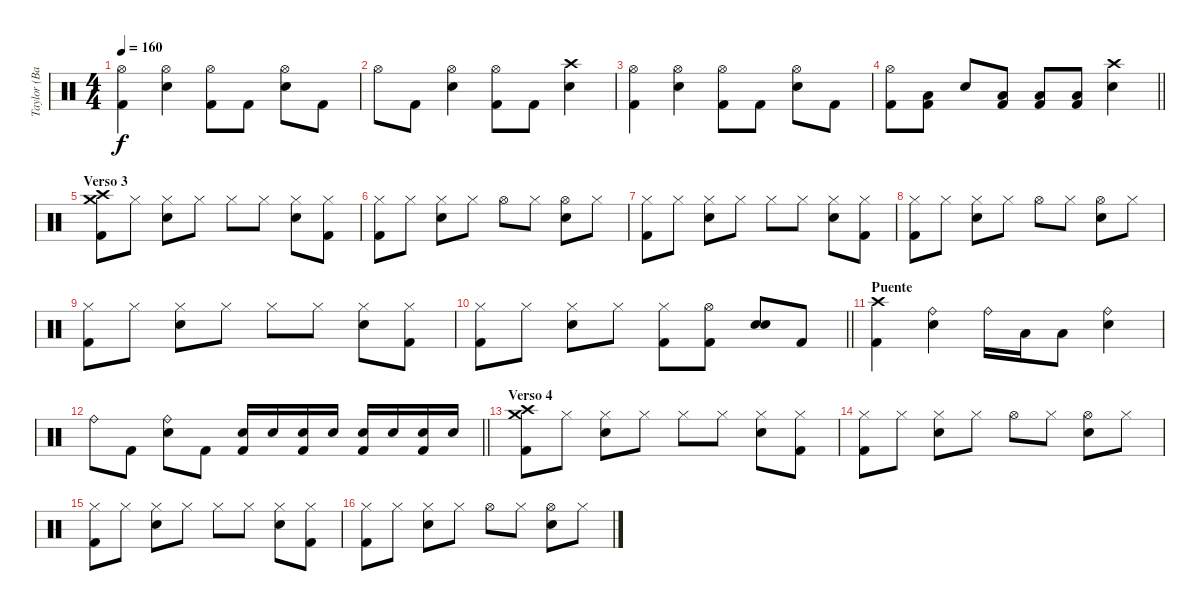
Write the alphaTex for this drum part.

\track ("Taylor (Batería)" "Taylor (Ba") {instrument percussion}
\staff {score}
\articulation defaults
\ts (4 4)
\tempo 160
\clef neutral
\ks c
("Hi-Hat (open)" "Kick (hit) 2").4{dy f} ("Hi-Hat (open)" "Electric Snare (hit)").4 ("Hi-Hat (open)" "Kick (hit) 2").8 "Kick (hit) 2".8 ("Hi-Hat (open)" "Electric Snare (hit)").8 "Kick (hit) 2".8 |
"Hi-Hat (open)".8 "Kick (hit) 2".8 ("Hi-Hat (open)" "Electric Snare (hit)").4 ("Hi-Hat (open)" "Kick (hit) 2").8 "Kick (hit) 2".8 ("Crash high (hit)" "Electric Snare (hit)").4 |
("Hi-Hat (open)" "Kick (hit) 2").4 ("Hi-Hat (open)" "Electric Snare (hit)").4 ("Hi-Hat (open)" "Kick (hit) 2").8 "Kick (hit) 2".8 ("Hi-Hat (open)" "Electric Snare (hit)").8 "Kick (hit) 2".8 |
\barLineRight lightlight
("Hi-Hat (open)" "Kick (hit) 2").8 ("Low Tom (hit)" "Kick (hit) 2").8 "Electric Snare (hit)".8 ("Low Tom (hit)" "Kick (hit) 2").8 ("Low Tom (hit)" "Kick (hit) 2").8 ("Low Tom (hit)" "Kick (hit) 2").8 ("Crash high (hit)" "Electric Snare (hit)").4 |
\section ("" "Verso 3")
("Crash high (hit)" "Crash medium (hit)" "Kick (hit) 2").8 "Hi-Hat (closed)".8 ("Hi-Hat (closed)" "Electric Snare (hit)").8 "Hi-Hat (closed)".8 "Hi-Hat (closed)".8 "Hi-Hat (closed)".8 ("Hi-Hat (closed)" "Electric Snare (hit)").8 ("Hi-Hat (closed)" "Kick (hit) 2").8 |
("Hi-Hat (closed)" "Kick (hit) 2").8 "Hi-Hat (closed)".8 ("Hi-Hat (closed)" "Electric Snare (hit)").8 "Hi-Hat (closed)".8 "Hi-Hat (open)".8 "Hi-Hat (closed)".8 ("Hi-Hat (open)" "Electric Snare (hit)").8 "Hi-Hat (closed)".8 |
("Hi-Hat (closed)" "Kick (hit) 2").8 "Hi-Hat (closed)".8 ("Hi-Hat (closed)" "Electric Snare (hit)").8 "Hi-Hat (closed)".8 "Hi-Hat (closed)".8 "Hi-Hat (closed)".8 ("Hi-Hat (closed)" "Electric Snare (hit)").8 ("Hi-Hat (closed)" "Kick (hit) 2").8 |
("Hi-Hat (closed)" "Kick (hit) 2").8 "Hi-Hat (closed)".8 ("Hi-Hat (closed)" "Electric Snare (hit)").8 "Hi-Hat (closed)".8 "Hi-Hat (open)".8 "Hi-Hat (closed)".8 ("Hi-Hat (open)" "Electric Snare (hit)").8 "Hi-Hat (closed)".8 |
("Hi-Hat (closed)" "Kick (hit) 2").8 "Hi-Hat (closed)".8 ("Hi-Hat (closed)" "Electric Snare (hit)").8 "Hi-Hat (closed)".8 "Hi-Hat (closed)".8 "Hi-Hat (closed)".8 ("Hi-Hat (closed)" "Electric Snare (hit)").8 ("Hi-Hat (closed)" "Kick (hit) 2").8 |
\barLineRight lightlight
("Hi-Hat (closed)" "Kick (hit) 2").8 "Hi-Hat (closed)".8 ("Hi-Hat (closed)" "Electric Snare (hit)").8 "Hi-Hat (closed)".8 ("Hi-Hat (closed)" "Kick (hit) 2").8 ("Hi-Hat (open)" "Kick (hit) 2").8 ("Electric Snare (hit)" "Electric Snare (hit)").8 "Kick (hit) 2".8 |
\section ("" "Puente")
("Crash high (hit)" "Kick (hit) 2").4 ("Ride (bell)" "Electric Snare (hit)").4 "Ride (bell)".16 "Low Tom (hit)".16 "Low Tom (hit)".8 ("Ride (bell)" "Electric Snare (hit)").4 |
\barLineRight lightlight "Ride (bell)".8 "Kick (hit) 2".8
("Ride (bell)" "Electric Snare (hit)").8 "Kick (hit) 2".8 ("Electric Snare (hit)" "Kick (hit) 2").16 "Electric Snare (hit)".16 ("Electric Snare (hit)" "Kick (hit) 2").16 "Electric Snare (hit)".16 ("Electric Snare (hit)" "Kick (hit) 2").16 "Electric Snare (hit)".16 ("Electric Snare (hit)" "Kick (hit) 2").16 "Electric Snare (hit)".16 |
\section ("" "Verso 4")
("Crash high (hit)" "Crash medium (hit)" "Kick (hit) 2").8 "Hi-Hat (closed)".8 ("Hi-Hat (closed)" "Electric Snare (hit)").8 "Hi-Hat (closed)".8 "Hi-Hat (closed)".8 "Hi-Hat (closed)".8 ("Hi-Hat (closed)" "Electric Snare (hit)").8 ("Hi-Hat (closed)" "Kick (hit) 2").8 |
("Hi-Hat (closed)" "Kick (hit) 2").8 "Hi-Hat (closed)".8 ("Hi-Hat (closed)" "Electric Snare (hit)").8 "Hi-Hat (closed)".8 "Hi-Hat (open)".8 "Hi-Hat (closed)".8 ("Hi-Hat (open)" "Electric Snare (hit)").8 "Hi-Hat (closed)".8 |
("Hi-Hat (closed)" "Kick (hit) 2").8 "Hi-Hat (closed)".8 ("Hi-Hat (closed)" "Electric Snare (hit)").8 "Hi-Hat (closed)".8 "Hi-Hat (closed)".8 "Hi-Hat (closed)".8 ("Hi-Hat (closed)" "Electric Snare (hit)").8 ("Hi-Hat (closed)" "Kick (hit) 2").8 |
("Hi-Hat (closed)" "Kick (hit) 2").8 "Hi-Hat (closed)".8 ("Hi-Hat (closed)" "Electric Snare (hit)").8 "Hi-Hat (closed)".8 "Hi-Hat (open)".8 "Hi-Hat (closed)".8 ("Hi-Hat (open)" "Electric Snare (hit)").8 "Hi-Hat (closed)".8
